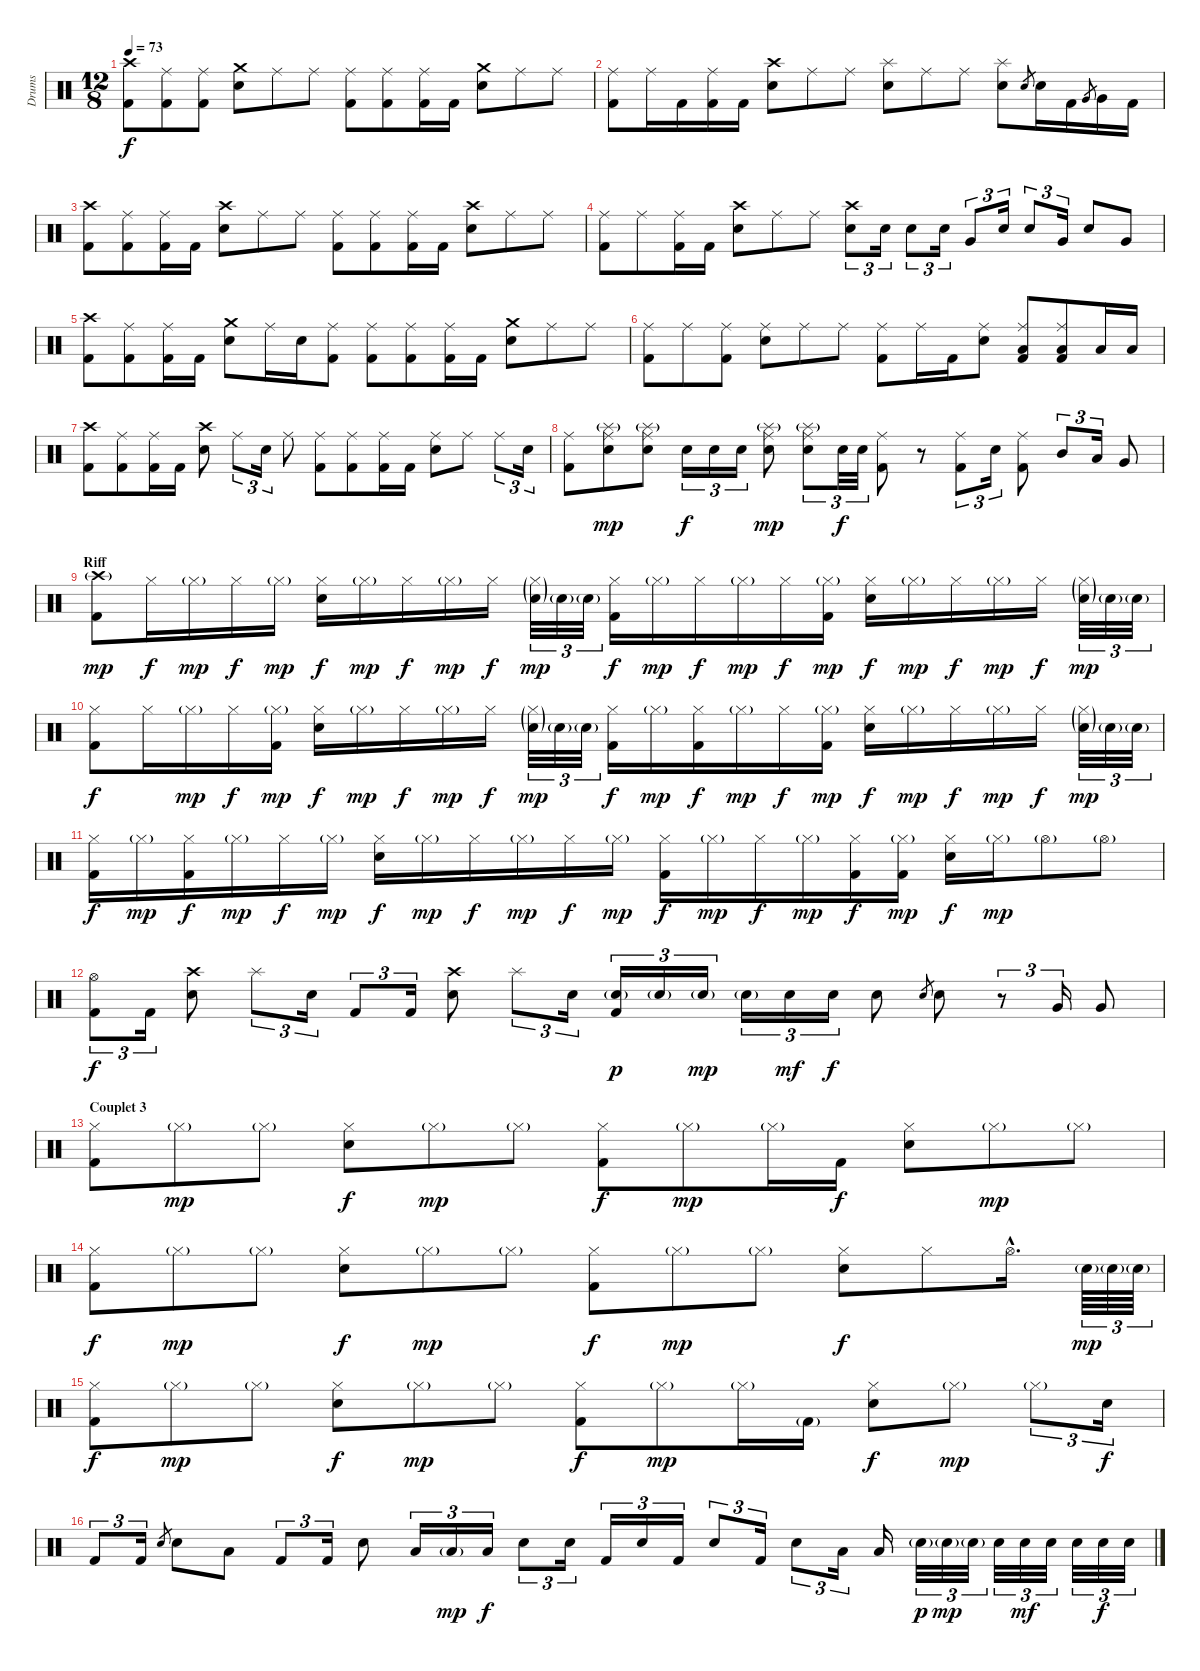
\track ("Drums" "Drums") {instrument percussion}
\staff {score}
\articulation defaults
\ts (12 8)
\tempo 73
\clef neutral
\ks c
("Crash high (hit)" "Kick (hit) 2").8{dy f} ("Ride (middle)" "Kick (hit) 2").8 ("Ride (middle)" "Kick (hit) 2").8 ("Crash medium (hit)" "Electric Snare (hit)").8 "Ride (middle)".8 "Ride (middle)".8 ("Ride (middle)" "Kick (hit) 2").8 ("Ride (middle)" "Kick (hit) 2").8 ("Ride (middle)" "Kick (hit) 2").16 "Kick (hit) 2".16 ("Crash medium (hit)" "Electric Snare (hit)").8 "Ride (middle)".8 "Ride (middle)".8 |
("Ride (middle)" "Kick (hit) 2").8 "Ride (middle)".16 "Kick (hit) 2".16 ("Ride (middle)" "Kick (hit) 2").16 "Kick (hit) 2".16 ("Electric Snare (hit)" "Crash high (hit)").8 "Ride (middle)".8 "Ride (middle)".8 ("Splash (hit)" "Electric Snare (hit)").8 "Ride (middle)".8 "Ride (middle)".8 ("Splash (hit)" "Electric Snare (hit)").8 "Electric Snare (hit)".8{gr} "Electric Snare (hit)".16 "Kick (hit) 2".16 "Very Low Tom (hit)".8{gr} "Very Low Tom (hit)".16 "Kick (hit) 2".16 |
("Crash high (hit)" "Kick (hit) 2").8 ("Ride (middle)" "Kick (hit) 2").8 ("Ride (middle)" "Kick (hit) 2").16 "Kick (hit) 2".16 ("Electric Snare (hit)" "Crash high (hit)").8 "Ride (middle)".8 "Ride (middle)".8 ("Ride (middle)" "Kick (hit) 2").8 ("Ride (middle)" "Kick (hit) 2").8 ("Ride (middle)" "Kick (hit) 2").16 "Kick (hit) 2".16 ("Electric Snare (hit)" "Crash high (hit)").8 "Ride (middle)".8 "Ride (middle)".8 |
("Ride (middle)" "Kick (hit) 2").8 "Ride (middle)".8 ("Ride (middle)" "Kick (hit) 2").16 "Kick (hit) 2".16 ("Electric Snare (hit)" "Crash high (hit)").8 "Ride (middle)".8 "Ride (middle)".8 ("Electric Snare (hit)" "Crash high (hit)").8{tu (3 2)} "Electric Snare (hit)".16{tu (3 2)} "Electric Snare (hit)".8{tu (3 2)} "Electric Snare (hit)".16{tu (3 2)} "Very Low Tom (hit)".8{tu (3 2)} "Electric Snare (hit)".16{tu (3 2)} "Electric Snare (hit)".8{tu (3 2)} "Very Low Tom (hit)".16{tu (3 2)} "Electric Snare (hit)".8 "Very Low Tom (hit)".8 |
("Crash high (hit)" "Kick (hit) 2").8 ("Ride (middle)" "Kick (hit) 2").8 ("Ride (middle)" "Kick (hit) 2").16 "Kick (hit) 2".16 ("Crash medium (hit)" "Electric Snare (hit)").8 "Ride (middle)".16 "Electric Snare (hit)".16 ("Ride (middle)" "Kick (hit) 2").8 ("Ride (middle)" "Kick (hit) 2").8 ("Ride (middle)" "Kick (hit) 2").8 ("Ride (middle)" "Kick (hit) 2").16 "Kick (hit) 2".16 ("Crash medium (hit)" "Electric Snare (hit)").8 "Ride (middle)".8 "Ride (middle)".8 |
("Ride (middle)" "Kick (hit) 2").8 "Ride (middle)".8 ("Ride (middle)" "Kick (hit) 2").8 ("Electric Snare (hit)" "Ride (middle)").8 "Ride (middle)".8 "Ride (middle)".8 ("Ride (middle)" "Kick (hit) 2").8 "Ride (middle)".16 "Kick (hit) 2".16 ("Electric Snare (hit)" "Ride (middle)").8 ("Low Tom (hit)" "Ride (middle)" "Kick (hit) 2").8 ("Low Tom (hit)" "Ride (middle)" "Kick (hit) 2").8 "Low Tom (hit)".16 "Low Tom (hit)".16 |
("Crash high (hit)" "Kick (hit) 2").8 ("Ride (middle)" "Kick (hit) 2").8 ("Ride (middle)" "Kick (hit) 2").16 "Kick (hit) 2".16 ("Electric Snare (hit)" "Crash high (hit)").8 "Ride (middle)".8{tu (3 2)} "Electric Snare (hit)".16{tu (3 2)} "Ride (middle)".8 ("Ride (middle)" "Kick (hit) 2").8 ("Ride (middle)" "Kick (hit) 2").8 ("Ride (middle)" "Kick (hit) 2").16 "Kick (hit) 2".16 ("Electric Snare (hit)" "Ride (middle)").8 "Ride (middle)".8 "Ride (middle)".8{tu (3 2)} "Electric Snare (hit)".16{tu (3 2)} |
("Ride (middle)" "Kick (hit) 2").8 ("Electric Snare (hit)" "Ride (middle)" "Splash (hit)"{g}).8{dy mp} ("Electric Snare (hit)" "Ride (middle)" "Splash (hit)"{g}).8 "Electric Snare (hit)".16{tu (3 2) dy f} "Electric Snare (hit)".16{tu (3 2)} "Electric Snare (hit)".16{tu (3 2)} ("Electric Snare (hit)" "Ride (middle)" "Splash (hit)"{g}).8{dy mp} ("Electric Snare (hit)" "Ride (middle)" "Splash (hit)"{g}).8{tu (3 2)} "Electric Snare (hit)".32{tu (3 2) dy f} "Electric Snare (hit)".32{tu (3 2)} ("Ride (middle)" "Kick (hit) 2").8 r.8 ("Ride (middle)" "Kick (hit) 2").8{tu (3 2)} "Electric Snare (hit)".16{tu (3 2)} ("Ride (middle)" "Kick (hit) 2").8 "Mid Tom (hit)".8{tu (3 2)} "Low Tom (hit)".16{tu (3 2)} "Very Low Tom (hit)".8 |
\section ("" "Riff")
("Crash high (hit)"{g} "Kick (hit) 2").8{dy mp} "Hi-Hat (closed)".16{dy f} "Hi-Hat (closed)"{g}.16{dy mp} "Hi-Hat (closed)".16{dy f} "Hi-Hat (closed)"{g}.16{dy mp} ("Hi-Hat (closed)" "Electric Snare (hit)").16{dy f} "Hi-Hat (closed)"{g}.16{dy mp} "Hi-Hat (closed)".16{dy f} "Hi-Hat (closed)"{g}.16{dy mp} "Hi-Hat (closed)".16{dy f} ("Hi-Hat (closed)"{g} "Electric Snare (hit)"{g}).32{tu (3 2) dy mp} "Electric Snare (hit)"{g}.32{tu (3 2)} "Electric Snare (hit)"{g}.32{tu (3 2)} ("Hi-Hat (closed)" "Kick (hit) 2").16{dy f} "Hi-Hat (closed)"{g}.16{dy mp} "Hi-Hat (closed)".16{dy f} "Hi-Hat (closed)"{g}.16{dy mp} "Hi-Hat (closed)".16{dy f} ("Hi-Hat (closed)"{g} "Kick (hit) 2").16{dy mp} ("Hi-Hat (closed)" "Electric Snare (hit)").16{dy f} "Hi-Hat (closed)"{g}.16{dy mp} "Hi-Hat (closed)".16{dy f} "Hi-Hat (closed)"{g}.16{dy mp} "Hi-Hat (closed)".16{dy f} ("Hi-Hat (closed)"{g} "Electric Snare (hit)"{g}).32{tu (3 2) dy mp} "Electric Snare (hit)"{g}.32{tu (3 2)} "Electric Snare (hit)"{g}.32{tu (3 2)} |
("Hi-Hat (closed)" "Kick (hit) 2").8{dy f} "Hi-Hat (closed)".16 "Hi-Hat (closed)"{g}.16{dy mp} "Hi-Hat (closed)".16{dy f} ("Hi-Hat (closed)"{g} "Kick (hit) 2").16{dy mp} ("Hi-Hat (closed)" "Electric Snare (hit)").16{dy f} "Hi-Hat (closed)"{g}.16{dy mp} "Hi-Hat (closed)".16{dy f} "Hi-Hat (closed)"{g}.16{dy mp} "Hi-Hat (closed)".16{dy f} ("Hi-Hat (closed)"{g} "Electric Snare (hit)"{g}).32{tu (3 2) dy mp} "Electric Snare (hit)"{g}.32{tu (3 2)} "Electric Snare (hit)"{g}.32{tu (3 2)} ("Hi-Hat (closed)" "Kick (hit) 2").16{dy f} "Hi-Hat (closed)"{g}.16{dy mp} ("Hi-Hat (closed)" "Kick (hit) 2").16{dy f} "Hi-Hat (closed)"{g}.16{dy mp} "Hi-Hat (closed)".16{dy f} ("Hi-Hat (closed)"{g} "Kick (hit) 2").16{dy mp} ("Hi-Hat (closed)" "Electric Snare (hit)").16{dy f} "Hi-Hat (closed)"{g}.16{dy mp} "Hi-Hat (closed)".16{dy f} "Hi-Hat (closed)"{g}.16{dy mp} "Hi-Hat (closed)".16{dy f} ("Hi-Hat (closed)"{g} "Electric Snare (hit)"{g}).32{tu (3 2) dy mp} "Electric Snare (hit)"{g}.32{tu (3 2)} "Electric Snare (hit)"{g}.32{tu (3 2)} |
("Hi-Hat (closed)" "Kick (hit) 2").16{dy f} "Hi-Hat (closed)"{g}.16{dy mp} ("Hi-Hat (closed)" "Kick (hit) 2").16{dy f} "Hi-Hat (closed)"{g}.16{dy mp} "Hi-Hat (closed)".16{dy f} "Hi-Hat (closed)"{g}.16{dy mp} ("Hi-Hat (closed)" "Electric Snare (hit)").16{dy f} "Hi-Hat (closed)"{g}.16{dy mp} "Hi-Hat (closed)".16{dy f} "Hi-Hat (closed)"{g}.16{dy mp} "Hi-Hat (closed)".16{dy f} "Hi-Hat (closed)"{g}.16{dy mp} ("Hi-Hat (closed)" "Kick (hit) 2").16{dy f} "Hi-Hat (closed)"{g}.16{dy mp} "Hi-Hat (closed)".16{dy f} "Hi-Hat (closed)"{g}.16{dy mp} ("Hi-Hat (closed)" "Kick (hit) 2").16{dy f} ("Hi-Hat (closed)"{g} "Kick (hit) 2").16{dy mp} ("Hi-Hat (closed)" "Electric Snare (hit)").16{dy f} "Hi-Hat (closed)"{g}.16{dy mp} "Hi-Hat (open)"{g}.8 "Hi-Hat (open)"{g}.8 |
("Hi-Hat (open)" "Kick (hit) 2").8{tu (3 2) dy f} "Kick (hit) 2".16{tu (3 2)} ("Crash high (hit)" "Electric Snare (hit)").8 "Splash (hit)".8{tu (3 2)} "Electric Snare (hit)".16{tu (3 2)} "Kick (hit) 2".8{tu (3 2)} "Kick (hit) 2".16{tu (3 2)} ("Crash high (hit)" "Electric Snare (hit)").8 "Splash (hit)".8{tu (3 2)} "Electric Snare (hit)".16{tu (3 2)} ("Electric Snare (hit)"{g} "Kick (hit) 2").16{tu (3 2) dy p} "Electric Snare (hit)"{g}.16{tu (3 2)} "Electric Snare (hit)"{g}.16{tu (3 2) dy mp} "Electric Snare (hit)"{g}.16{tu (3 2)} "Electric Snare (hit)".16{tu (3 2) dy mf} "Electric Snare (hit)".16{tu (3 2) dy f} "Electric Snare (hit)".8 "Electric Snare (hit)".8{gr} "Electric Snare (hit)".8 r.8{tu (3 2)} "Very Low Tom (hit)".16{tu (3 2)} "Very Low Tom (hit)".8 |
\section ("" "Couplet 3")
("Hi-Hat (closed)" "Kick (hit) 2").8 "Hi-Hat (closed)"{g}.8{dy mp} "Hi-Hat (closed)"{g}.8 ("Hi-Hat (closed)" "Electric Snare (hit)").8{dy f volume 7} "Hi-Hat (closed)"{g}.8{dy mp volume 10} "Hi-Hat (closed)"{g}.8 ("Hi-Hat (closed)" "Kick (hit) 2").8{dy f} "Hi-Hat (closed)"{g}.8{dy mp} "Hi-Hat (closed)"{g}.16 "Kick (hit) 2".16{dy f} ("Hi-Hat (closed)" "Electric Snare (hit)").8{volume 7} "Hi-Hat (closed)"{g}.8{dy mp volume 10} "Hi-Hat (closed)"{g}.8 |
("Hi-Hat (closed)" "Kick (hit) 2").8{dy f} "Hi-Hat (closed)"{g}.8{dy mp} "Hi-Hat (closed)"{g}.8 ("Hi-Hat (closed)" "Electric Snare (hit)").8{dy f volume 7} "Hi-Hat (closed)"{g}.8{dy mp volume 10} "Hi-Hat (closed)"{g}.8 ("Hi-Hat (closed)" "Kick (hit) 2").8{dy f} "Hi-Hat (closed)"{g}.8{dy mp} "Hi-Hat (closed)"{g}.8 ("Hi-Hat (closed)" "Electric Snare (hit)").8{dy f volume 7} "Hi-Hat (closed)".8 "Hi-Hat (open)"{hac}.16{d} "Electric Snare (hit)"{g}.64{tu (3 2) dy mp} "Electric Snare (hit)"{g}.64{tu (3 2)} "Electric Snare (hit)"{g}.64{tu (3 2)} |
("Hi-Hat (closed)" "Kick (hit) 2").8{dy f} "Hi-Hat (closed)"{g}.8{dy mp} "Hi-Hat (closed)"{g}.8 ("Hi-Hat (closed)" "Electric Snare (hit)").8{dy f volume 7} "Hi-Hat (closed)"{g}.8{dy mp volume 10} "Hi-Hat (closed)"{g}.8 ("Hi-Hat (closed)" "Kick (hit) 2").8{dy f} "Hi-Hat (closed)"{g}.8{dy mp} "Hi-Hat (closed)"{g}.16 "Kick (hit) 2"{g}.16 ("Hi-Hat (closed)" "Electric Snare (hit)").8{dy f volume 7} "Hi-Hat (closed)"{g}.8{dy mp} "Hi-Hat (closed)"{g}.8{tu (3 2)} "Electric Snare (hit)".16{tu (3 2) dy f} |
"Kick (hit) 2".8{tu (3 2)} "Kick (hit) 2".16{tu (3 2)} "Electric Snare (hit)".8{gr} "Electric Snare (hit)".8 "Low Tom (hit)".8 "Kick (hit) 2".8{tu (3 2)} "Kick (hit) 2".16{tu (3 2)} "Electric Snare (hit)".8 "Low Tom (hit)".16{tu (3 2)} "Low Tom (hit)"{g}.16{tu (3 2) dy mp} "Low Tom (hit)".16{tu (3 2) dy f} "Electric Snare (hit)".8{tu (3 2)} "Electric Snare (hit)".16{tu (3 2)} "Kick (hit) 2".16{tu (3 2)} "Electric Snare (hit)".16{tu (3 2)} "Kick (hit) 2".16{tu (3 2)} "Electric Snare (hit)".8{tu (3 2)} "Kick (hit) 2".16{tu (3 2)} "Electric Snare (hit)".8{tu (3 2)} "Low Tom (hit)".16{tu (3 2)} "Low Tom (hit)".16 "Electric Snare (hit)"{g}.32{tu (3 2) dy p} "Electric Snare (hit)"{g}.32{tu (3 2) dy mp} "Electric Snare (hit)"{g}.32{tu (3 2)} "Electric Snare (hit)".32{tu (3 2)} "Electric Snare (hit)".32{tu (3 2) dy mf} "Electric Snare (hit)".32{tu (3 2)} "Electric Snare (hit)".32{tu (3 2)} "Electric Snare (hit)".32{tu (3 2) dy f} "Electric Snare (hit)".32{tu (3 2)}
